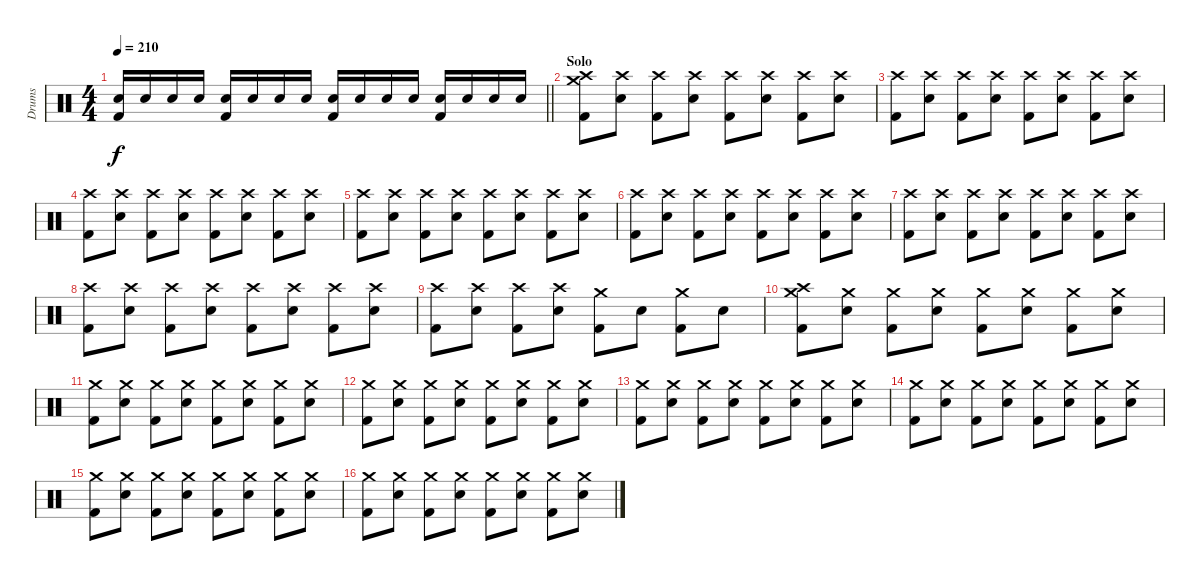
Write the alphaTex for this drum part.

\track ("Drums" "Drums") {instrument percussion}
\staff {score}
\articulation defaults
\ts (4 4)
\tempo 210
\clef neutral
\barLineRight lightlight
\ks c
("Kick (hit) 2" "Electric Snare (hit)").16{dy f} "Electric Snare (hit)".16 "Electric Snare (hit)".16 "Electric Snare (hit)".16 ("Kick (hit) 2" "Electric Snare (hit)").16 "Electric Snare (hit)".16 "Electric Snare (hit)".16 "Electric Snare (hit)".16 ("Kick (hit) 2" "Electric Snare (hit)").16 "Electric Snare (hit)".16 "Electric Snare (hit)".16 "Electric Snare (hit)".16 ("Kick (hit) 2" "Electric Snare (hit)").16 "Electric Snare (hit)".16 "Electric Snare (hit)".16 "Electric Snare (hit)".16 |
\section ("" "Solo")
("Kick (hit) 2" "Crash high (hit)" "Crash medium (hit)").8 ("Electric Snare (hit)" "Crash high (hit)").8 ("Kick (hit) 2" "Crash high (hit)").8 ("Electric Snare (hit)" "Crash high (hit)").8 ("Kick (hit) 2" "Crash high (hit)").8 ("Electric Snare (hit)" "Crash high (hit)").8 ("Kick (hit) 2" "Crash high (hit)").8 ("Electric Snare (hit)" "Crash high (hit)").8 |
("Kick (hit) 2" "Crash high (hit)").8 ("Electric Snare (hit)" "Crash high (hit)").8 ("Kick (hit) 2" "Crash high (hit)").8 ("Electric Snare (hit)" "Crash high (hit)").8 ("Kick (hit) 2" "Crash high (hit)").8 ("Electric Snare (hit)" "Crash high (hit)").8 ("Kick (hit) 2" "Crash high (hit)").8 ("Electric Snare (hit)" "Crash high (hit)").8 |
("Kick (hit) 2" "Crash high (hit)").8 ("Electric Snare (hit)" "Crash high (hit)").8 ("Kick (hit) 2" "Crash high (hit)").8 ("Electric Snare (hit)" "Crash high (hit)").8 ("Kick (hit) 2" "Crash high (hit)").8 ("Electric Snare (hit)" "Crash high (hit)").8 ("Kick (hit) 2" "Crash high (hit)").8 ("Electric Snare (hit)" "Crash high (hit)").8 |
("Kick (hit) 2" "Crash high (hit)").8 ("Electric Snare (hit)" "Crash high (hit)").8 ("Kick (hit) 2" "Crash high (hit)").8 ("Electric Snare (hit)" "Crash high (hit)").8 ("Kick (hit) 2" "Crash high (hit)").8 ("Electric Snare (hit)" "Crash high (hit)").8 ("Kick (hit) 2" "Crash high (hit)").8 ("Electric Snare (hit)" "Crash high (hit)").8 |
("Kick (hit) 2" "Crash high (hit)").8 ("Electric Snare (hit)" "Crash high (hit)").8 ("Kick (hit) 2" "Crash high (hit)").8 ("Electric Snare (hit)" "Crash high (hit)").8 ("Kick (hit) 2" "Crash high (hit)").8 ("Electric Snare (hit)" "Crash high (hit)").8 ("Kick (hit) 2" "Crash high (hit)").8 ("Electric Snare (hit)" "Crash high (hit)").8 |
("Kick (hit) 2" "Crash high (hit)").8 ("Electric Snare (hit)" "Crash high (hit)").8 ("Kick (hit) 2" "Crash high (hit)").8 ("Electric Snare (hit)" "Crash high (hit)").8 ("Kick (hit) 2" "Crash high (hit)").8 ("Electric Snare (hit)" "Crash high (hit)").8 ("Kick (hit) 2" "Crash high (hit)").8 ("Electric Snare (hit)" "Crash high (hit)").8 |
("Kick (hit) 2" "Crash high (hit)").8 ("Electric Snare (hit)" "Crash high (hit)").8 ("Kick (hit) 2" "Crash high (hit)").8 ("Electric Snare (hit)" "Crash high (hit)").8 ("Kick (hit) 2" "Crash high (hit)").8 ("Electric Snare (hit)" "Crash high (hit)").8 ("Kick (hit) 2" "Crash high (hit)").8 ("Electric Snare (hit)" "Crash high (hit)").8 |
("Kick (hit) 2" "Crash high (hit)").8 ("Electric Snare (hit)" "Crash high (hit)").8 ("Kick (hit) 2" "Crash high (hit)").8 ("Electric Snare (hit)" "Crash high (hit)").8 ("Kick (hit) 2" "Crash medium (hit)").8 "Electric Snare (hit)".8 ("Kick (hit) 2" "Crash medium (hit)").8 "Electric Snare (hit)".8 |
("Kick (hit) 2" "Crash high (hit)" "Crash medium (hit)").8 ("Electric Snare (hit)" "Crash medium (hit)").8 ("Kick (hit) 2" "Crash medium (hit)").8 ("Electric Snare (hit)" "Crash medium (hit)").8 ("Kick (hit) 2" "Crash medium (hit)").8 ("Electric Snare (hit)" "Crash medium (hit)").8 ("Kick (hit) 2" "Crash medium (hit)").8 ("Electric Snare (hit)" "Crash medium (hit)").8 |
("Kick (hit) 2" "Crash medium (hit)").8 ("Electric Snare (hit)" "Crash medium (hit)").8 ("Kick (hit) 2" "Crash medium (hit)").8 ("Electric Snare (hit)" "Crash medium (hit)").8 ("Kick (hit) 2" "Crash medium (hit)").8 ("Electric Snare (hit)" "Crash medium (hit)").8 ("Kick (hit) 2" "Crash medium (hit)").8 ("Electric Snare (hit)" "Crash medium (hit)").8 |
("Kick (hit) 2" "Crash medium (hit)").8 ("Electric Snare (hit)" "Crash medium (hit)").8 ("Kick (hit) 2" "Crash medium (hit)").8 ("Electric Snare (hit)" "Crash medium (hit)").8 ("Kick (hit) 2" "Crash medium (hit)").8 ("Electric Snare (hit)" "Crash medium (hit)").8 ("Kick (hit) 2" "Crash medium (hit)").8 ("Electric Snare (hit)" "Crash medium (hit)").8 |
("Kick (hit) 2" "Crash medium (hit)").8 ("Electric Snare (hit)" "Crash medium (hit)").8 ("Kick (hit) 2" "Crash medium (hit)").8 ("Electric Snare (hit)" "Crash medium (hit)").8 ("Kick (hit) 2" "Crash medium (hit)").8 ("Electric Snare (hit)" "Crash medium (hit)").8 ("Kick (hit) 2" "Crash medium (hit)").8 ("Electric Snare (hit)" "Crash medium (hit)").8 |
("Kick (hit) 2" "Crash medium (hit)").8 ("Electric Snare (hit)" "Crash medium (hit)").8 ("Kick (hit) 2" "Crash medium (hit)").8 ("Electric Snare (hit)" "Crash medium (hit)").8 ("Kick (hit) 2" "Crash medium (hit)").8 ("Electric Snare (hit)" "Crash medium (hit)").8 ("Kick (hit) 2" "Crash medium (hit)").8 ("Electric Snare (hit)" "Crash medium (hit)").8 |
("Kick (hit) 2" "Crash medium (hit)").8 ("Electric Snare (hit)" "Crash medium (hit)").8 ("Kick (hit) 2" "Crash medium (hit)").8 ("Electric Snare (hit)" "Crash medium (hit)").8 ("Kick (hit) 2" "Crash medium (hit)").8 ("Electric Snare (hit)" "Crash medium (hit)").8 ("Kick (hit) 2" "Crash medium (hit)").8 ("Electric Snare (hit)" "Crash medium (hit)").8 |
("Kick (hit) 2" "Crash medium (hit)").8 ("Electric Snare (hit)" "Crash medium (hit)").8 ("Kick (hit) 2" "Crash medium (hit)").8 ("Electric Snare (hit)" "Crash medium (hit)").8 ("Kick (hit) 2" "Crash medium (hit)").8 ("Electric Snare (hit)" "Crash medium (hit)").8 ("Kick (hit) 2" "Crash medium (hit)").8 ("Electric Snare (hit)" "Crash medium (hit)").8
